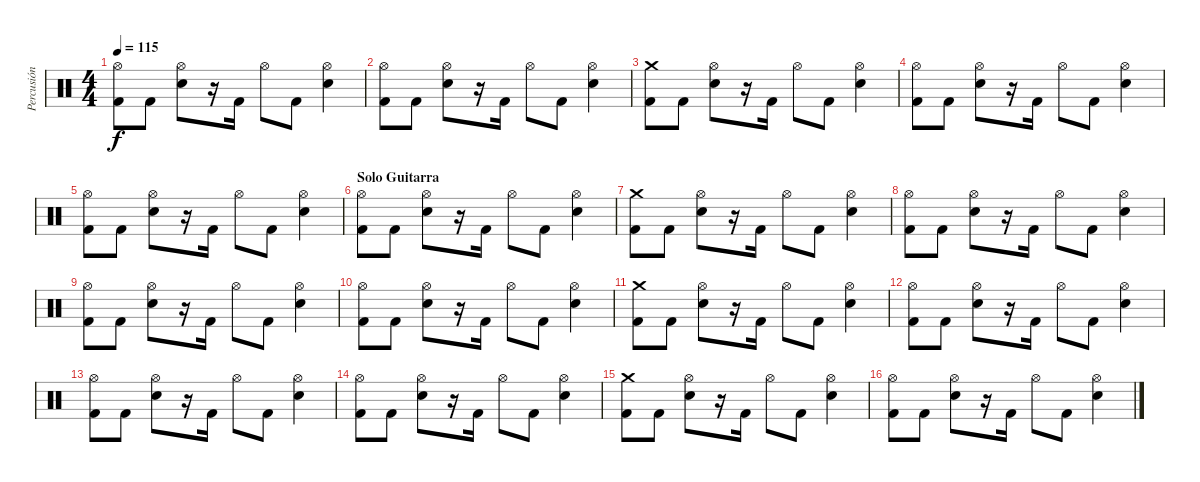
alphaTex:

\track ("Percusión" "Percusión") {instrument percussion}
\staff {score}
\articulation defaults
\ts (4 4)
\tempo 115
\clef neutral
\ks c
("Kick (hit) 2" "Hi-Hat (open)").8{dy f} "Kick (hit) 2".8 ("Electric Snare (hit)" "Hi-Hat (open)").8 r.16 "Kick (hit) 2".16 "Hi-Hat (open)".8 "Kick (hit) 2".8 ("Electric Snare (hit)" "Hi-Hat (open)").4 |
("Kick (hit) 2" "Hi-Hat (open)").8 "Kick (hit) 2".8 ("Electric Snare (hit)" "Hi-Hat (open)").8 r.16 "Kick (hit) 2".16 "Hi-Hat (open)".8 "Kick (hit) 2".8 ("Electric Snare (hit)" "Hi-Hat (open)").4 |
("Kick (hit) 2" "Crash medium (hit)").8 "Kick (hit) 2".8 ("Electric Snare (hit)" "Hi-Hat (open)").8 r.16 "Kick (hit) 2".16 "Hi-Hat (open)".8 "Kick (hit) 2".8 ("Electric Snare (hit)" "Hi-Hat (open)").4 |
("Kick (hit) 2" "Hi-Hat (open)").8 "Kick (hit) 2".8 ("Electric Snare (hit)" "Hi-Hat (open)").8 r.16 "Kick (hit) 2".16 "Hi-Hat (open)".8 "Kick (hit) 2".8 ("Electric Snare (hit)" "Hi-Hat (open)").4 |
("Kick (hit) 2" "Hi-Hat (open)").8 "Kick (hit) 2".8 ("Electric Snare (hit)" "Hi-Hat (open)").8 r.16 "Kick (hit) 2".16 "Hi-Hat (open)".8 "Kick (hit) 2".8 ("Electric Snare (hit)" "Hi-Hat (open)").4 |
\section ("" "Solo Guitarra")
("Kick (hit) 2" "Hi-Hat (open)").8 "Kick (hit) 2".8 ("Electric Snare (hit)" "Hi-Hat (open)").8 r.16 "Kick (hit) 2".16 "Hi-Hat (open)".8 "Kick (hit) 2".8 ("Electric Snare (hit)" "Hi-Hat (open)").4 |
("Kick (hit) 2" "Crash medium (hit)").8 "Kick (hit) 2".8 ("Electric Snare (hit)" "Hi-Hat (open)").8 r.16 "Kick (hit) 2".16 "Hi-Hat (open)".8 "Kick (hit) 2".8 ("Electric Snare (hit)" "Hi-Hat (open)").4 |
("Kick (hit) 2" "Hi-Hat (open)").8 "Kick (hit) 2".8 ("Electric Snare (hit)" "Hi-Hat (open)").8 r.16 "Kick (hit) 2".16 "Hi-Hat (open)".8 "Kick (hit) 2".8 ("Electric Snare (hit)" "Hi-Hat (open)").4 |
("Kick (hit) 2" "Hi-Hat (open)").8 "Kick (hit) 2".8 ("Electric Snare (hit)" "Hi-Hat (open)").8 r.16 "Kick (hit) 2".16 "Hi-Hat (open)".8 "Kick (hit) 2".8 ("Electric Snare (hit)" "Hi-Hat (open)").4 |
("Kick (hit) 2" "Hi-Hat (open)").8 "Kick (hit) 2".8 ("Electric Snare (hit)" "Hi-Hat (open)").8 r.16 "Kick (hit) 2".16 "Hi-Hat (open)".8 "Kick (hit) 2".8 ("Electric Snare (hit)" "Hi-Hat (open)").4 |
("Kick (hit) 2" "Crash medium (hit)").8 "Kick (hit) 2".8 ("Electric Snare (hit)" "Hi-Hat (open)").8 r.16 "Kick (hit) 2".16 "Hi-Hat (open)".8 "Kick (hit) 2".8 ("Electric Snare (hit)" "Hi-Hat (open)").4 |
("Kick (hit) 2" "Hi-Hat (open)").8 "Kick (hit) 2".8 ("Electric Snare (hit)" "Hi-Hat (open)").8 r.16 "Kick (hit) 2".16 "Hi-Hat (open)".8 "Kick (hit) 2".8 ("Electric Snare (hit)" "Hi-Hat (open)").4 |
("Kick (hit) 2" "Hi-Hat (open)").8 "Kick (hit) 2".8 ("Electric Snare (hit)" "Hi-Hat (open)").8 r.16 "Kick (hit) 2".16 "Hi-Hat (open)".8 "Kick (hit) 2".8 ("Electric Snare (hit)" "Hi-Hat (open)").4 |
("Kick (hit) 2" "Hi-Hat (open)").8 "Kick (hit) 2".8 ("Electric Snare (hit)" "Hi-Hat (open)").8 r.16 "Kick (hit) 2".16 "Hi-Hat (open)".8 "Kick (hit) 2".8 ("Electric Snare (hit)" "Hi-Hat (open)").4 |
("Kick (hit) 2" "Crash medium (hit)").8 "Kick (hit) 2".8 ("Electric Snare (hit)" "Hi-Hat (open)").8 r.16 "Kick (hit) 2".16 "Hi-Hat (open)".8 "Kick (hit) 2".8 ("Electric Snare (hit)" "Hi-Hat (open)").4 |
("Kick (hit) 2" "Hi-Hat (open)").8 "Kick (hit) 2".8 ("Electric Snare (hit)" "Hi-Hat (open)").8 r.16 "Kick (hit) 2".16 "Hi-Hat (open)".8 "Kick (hit) 2".8 ("Electric Snare (hit)" "Hi-Hat (open)").4
